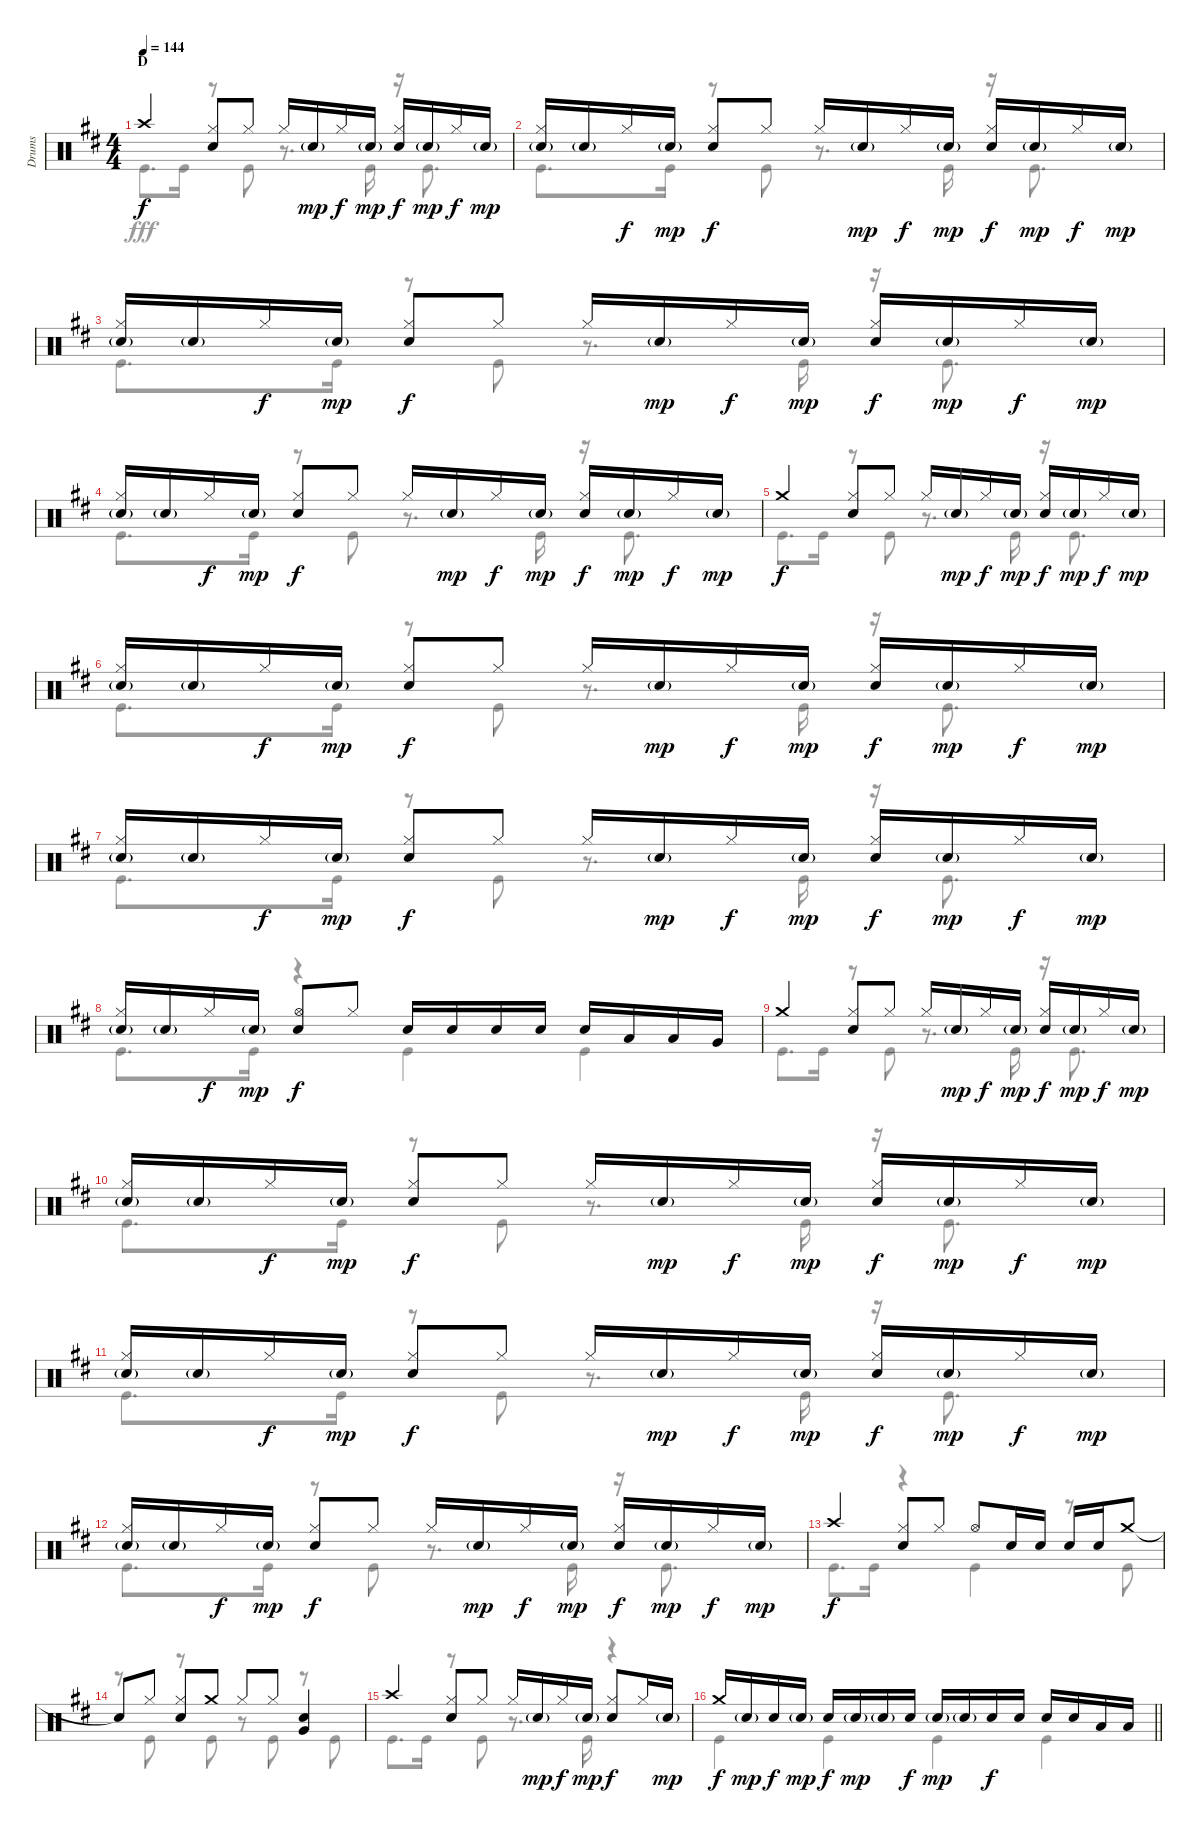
\track ("Drums" "Drums") {instrument percussion}
\staff {score}
\articulation defaults
\voice
\ts (4 4)
\section ("" "D")
\tempo 144
\clef neutral
\ks d "Crash high (hit)".4{dy f}
("Hi-Hat (closed)" "Snare (hit) 2").8 "Hi-Hat (closed)".8 "Hi-Hat (closed)".16 "Snare (hit) 2"{g}.16{dy mp} "Hi-Hat (closed)".16{dy f} "Snare (hit) 2"{g}.16{dy mp} ("Hi-Hat (closed)" "Snare (hit) 2").16{dy f} "Snare (hit) 2"{g}.16{dy mp} "Hi-Hat (closed)".16{dy f} "Snare (hit) 2"{g}.16{dy mp} |
("Hi-Hat (closed)" "Snare (hit) 2"{g}).16 "Snare (hit) 2"{g}.16 "Hi-Hat (closed)".16{dy f} "Snare (hit) 2"{g}.16{dy mp} ("Hi-Hat (closed)" "Snare (hit) 2").8{dy f} "Hi-Hat (closed)".8 "Hi-Hat (closed)".16 "Snare (hit) 2"{g}.16{dy mp} "Hi-Hat (closed)".16{dy f} "Snare (hit) 2"{g}.16{dy mp} ("Hi-Hat (closed)" "Snare (hit) 2").16{dy f} "Snare (hit) 2"{g}.16{dy mp} "Hi-Hat (closed)".16{dy f} "Snare (hit) 2"{g}.16{dy mp} |
("Hi-Hat (closed)" "Snare (hit) 2"{g}).16 "Snare (hit) 2"{g}.16 "Hi-Hat (closed)".16{dy f} "Snare (hit) 2"{g}.16{dy mp} ("Hi-Hat (closed)" "Snare (hit) 2").8{dy f} "Hi-Hat (closed)".8 "Hi-Hat (closed)".16 "Snare (hit) 2"{g}.16{dy mp} "Hi-Hat (closed)".16{dy f} "Snare (hit) 2"{g}.16{dy mp} ("Hi-Hat (closed)" "Snare (hit) 2").16{dy f} "Snare (hit) 2"{g}.16{dy mp} "Hi-Hat (closed)".16{dy f} "Snare (hit) 2"{g}.16{dy mp} |
("Hi-Hat (closed)" "Snare (hit) 2"{g}).16 "Snare (hit) 2"{g}.16 "Hi-Hat (closed)".16{dy f} "Snare (hit) 2"{g}.16{dy mp} ("Hi-Hat (closed)" "Snare (hit) 2").8{dy f} "Hi-Hat (closed)".8 "Hi-Hat (closed)".16 "Snare (hit) 2"{g}.16{dy mp} "Hi-Hat (closed)".16{dy f} "Snare (hit) 2"{g}.16{dy mp} ("Hi-Hat (closed)" "Snare (hit) 2").16{dy f} "Snare (hit) 2"{g}.16{dy mp} "Hi-Hat (closed)".16{dy f} "Snare (hit) 2"{g}.16{dy mp} |
"Crash medium (hit)".4{dy f} ("Hi-Hat (closed)" "Snare (hit) 2").8 "Hi-Hat (closed)".8 "Hi-Hat (closed)".16 "Snare (hit) 2"{g}.16{dy mp} "Hi-Hat (closed)".16{dy f} "Snare (hit) 2"{g}.16{dy mp} ("Hi-Hat (closed)" "Snare (hit) 2").16{dy f} "Snare (hit) 2"{g}.16{dy mp} "Hi-Hat (closed)".16{dy f} "Snare (hit) 2"{g}.16{dy mp} |
("Hi-Hat (closed)" "Snare (hit) 2"{g}).16 "Snare (hit) 2"{g}.16 "Hi-Hat (closed)".16{dy f} "Snare (hit) 2"{g}.16{dy mp} ("Hi-Hat (closed)" "Snare (hit) 2").8{dy f} "Hi-Hat (closed)".8 "Hi-Hat (closed)".16 "Snare (hit) 2"{g}.16{dy mp} "Hi-Hat (closed)".16{dy f} "Snare (hit) 2"{g}.16{dy mp} ("Hi-Hat (closed)" "Snare (hit) 2").16{dy f} "Snare (hit) 2"{g}.16{dy mp} "Hi-Hat (closed)".16{dy f} "Snare (hit) 2"{g}.16{dy mp} |
("Hi-Hat (closed)" "Snare (hit) 2"{g}).16 "Snare (hit) 2"{g}.16 "Hi-Hat (closed)".16{dy f} "Snare (hit) 2"{g}.16{dy mp} ("Hi-Hat (closed)" "Snare (hit) 2").8{dy f} "Hi-Hat (closed)".8 "Hi-Hat (closed)".16 "Snare (hit) 2"{g}.16{dy mp} "Hi-Hat (closed)".16{dy f} "Snare (hit) 2"{g}.16{dy mp} ("Hi-Hat (closed)" "Snare (hit) 2").16{dy f} "Snare (hit) 2"{g}.16{dy mp} "Hi-Hat (closed)".16{dy f} "Snare (hit) 2"{g}.16{dy mp} |
("Hi-Hat (closed)" "Snare (hit) 2"{g}).16 "Snare (hit) 2"{g}.16 "Hi-Hat (closed)".16{dy f} "Snare (hit) 2"{g}.16{dy mp} ("Hi-Hat (open)" "Snare (hit) 2").8{dy f} "Hi-Hat (closed)".8 "Snare (hit) 2".16 "Snare (hit) 2".16 "Snare (hit) 2".16 "Snare (hit) 2".16 "Snare (hit) 2".16 "Low Tom (hit)".16 "Low Tom (hit)".16 "Very Low Tom (hit)".16 |
"Crash medium (hit)".4 ("Hi-Hat (closed)" "Snare (hit) 2").8 "Hi-Hat (closed)".8 "Hi-Hat (closed)".16 "Snare (hit) 2"{g}.16{dy mp} "Hi-Hat (closed)".16{dy f} "Snare (hit) 2"{g}.16{dy mp} ("Hi-Hat (closed)" "Snare (hit) 2").16{dy f} "Snare (hit) 2"{g}.16{dy mp} "Hi-Hat (closed)".16{dy f} "Snare (hit) 2"{g}.16{dy mp} |
("Hi-Hat (closed)" "Snare (hit) 2"{g}).16 "Snare (hit) 2"{g}.16 "Hi-Hat (closed)".16{dy f} "Snare (hit) 2"{g}.16{dy mp} ("Hi-Hat (closed)" "Snare (hit) 2").8{dy f} "Hi-Hat (closed)".8 "Hi-Hat (closed)".16 "Snare (hit) 2"{g}.16{dy mp} "Hi-Hat (closed)".16{dy f} "Snare (hit) 2"{g}.16{dy mp} ("Hi-Hat (closed)" "Snare (hit) 2").16{dy f} "Snare (hit) 2"{g}.16{dy mp} "Hi-Hat (closed)".16{dy f} "Snare (hit) 2"{g}.16{dy mp} |
("Hi-Hat (closed)" "Snare (hit) 2"{g}).16 "Snare (hit) 2"{g}.16 "Hi-Hat (closed)".16{dy f} "Snare (hit) 2"{g}.16{dy mp} ("Hi-Hat (closed)" "Snare (hit) 2").8{dy f} "Hi-Hat (closed)".8 "Hi-Hat (closed)".16 "Snare (hit) 2"{g}.16{dy mp} "Hi-Hat (closed)".16{dy f} "Snare (hit) 2"{g}.16{dy mp} ("Hi-Hat (closed)" "Snare (hit) 2").16{dy f} "Snare (hit) 2"{g}.16{dy mp} "Hi-Hat (closed)".16{dy f} "Snare (hit) 2"{g}.16{dy mp} |
("Hi-Hat (closed)" "Snare (hit) 2"{g}).16 "Snare (hit) 2"{g}.16 "Hi-Hat (closed)".16{dy f} "Snare (hit) 2"{g}.16{dy mp} ("Hi-Hat (closed)" "Snare (hit) 2").8{dy f} "Hi-Hat (closed)".8 "Hi-Hat (closed)".16 "Snare (hit) 2"{g}.16{dy mp} "Hi-Hat (closed)".16{dy f} "Snare (hit) 2"{g}.16{dy mp} ("Hi-Hat (closed)" "Snare (hit) 2").16{dy f} "Snare (hit) 2"{g}.16{dy mp} "Hi-Hat (closed)".16{dy f} "Snare (hit) 2"{g}.16{dy mp} |
"Crash high (hit)".4{dy f} ("Hi-Hat (closed)" "Snare (hit) 2").8 "Hi-Hat (closed)".8 "Hi-Hat (open)".8 "Snare (hit) 2".16 "Snare (hit) 2".16 "Snare (hit) 2".16 "Snare (hit) 2".16 "Crash medium (hit)".8 |
"Snare (hit)"{t}.8 "Hi-Hat (closed)".8 ("Hi-Hat (closed)" "Snare (hit) 2").8 "Crash medium (hit)".8 "Hi-Hat (closed)".8 "Hi-Hat (closed)".8 ("Snare (hit) 2" "Very Low Tom (hit)").4 |
"Crash high (hit)".4 ("Hi-Hat (closed)" "Snare (hit) 2").8 "Hi-Hat (closed)".8 "Hi-Hat (closed)".16 "Snare (hit) 2"{g}.16{dy mp} "Hi-Hat (closed)".16{dy f} "Snare (hit) 2"{g}.16{dy mp} ("Hi-Hat (closed)" "Snare (hit) 2").8{dy f} "Hi-Hat (closed)".16 "Snare (hit) 2"{g}.16{dy mp} |
\barLineRight lightlight "Crash medium (hit)".16{dy f} "Snare (hit) 2"{g}.16{dy mp} "Snare (hit) 2".16{dy f} "Snare (hit) 2"{g}.16{dy mp} "Snare (hit) 2".16{dy f} "Snare (hit) 2"{g}.16{dy mp} "Snare (hit) 2"{g}.16 "Snare (hit) 2".16{dy f} "Snare (hit) 2"{g}.16{dy mp} "Snare (hit) 2"{g}.16 "Snare (hit) 2".16{dy f} "Snare (hit) 2".16 "Snare (hit) 2".16 "Snare (hit) 2".16 "Low Tom (hit)".16 "Low Tom (hit)".16
\voice
\clef neutral
\ottava regular
\simile none
\ks d "Kick (hit)".8{d dy fff} "Kick (hit)".16
r.8 "Kick (hit)".8 r.8{d} "Kick (hit)".16 r.16 "Kick (hit)".8{d} |
"Kick (hit)".8{d} "Kick (hit)".16 r.8 "Kick (hit)".8 r.8{d} "Kick (hit)".16 r.16 "Kick (hit)".8{d} |
"Kick (hit)".8{d} "Kick (hit)".16 r.8 "Kick (hit)".8 r.8{d} "Kick (hit)".16 r.16 "Kick (hit)".8{d} |
"Kick (hit)".8{d} "Kick (hit)".16 r.8 "Kick (hit)".8 r.8{d} "Kick (hit)".16 r.16 "Kick (hit)".8{d} |
"Kick (hit)".8{d} "Kick (hit)".16 r.8 "Kick (hit)".8 r.8{d} "Kick (hit)".16 r.16 "Kick (hit)".8{d} |
"Kick (hit)".8{d} "Kick (hit)".16 r.8 "Kick (hit)".8 r.8{d} "Kick (hit)".16 r.16 "Kick (hit)".8{d} |
"Kick (hit)".8{d} "Kick (hit)".16 r.8 "Kick (hit)".8 r.8{d} "Kick (hit)".16 r.16 "Kick (hit)".8{d} |
"Kick (hit)".8{d} "Kick (hit)".16 r.4 "Kick (hit)".4 "Kick (hit)".4 |
"Kick (hit)".8{d} "Kick (hit)".16 r.8 "Kick (hit)".8 r.8{d} "Kick (hit)".16 r.16 "Kick (hit)".8{d} |
"Kick (hit)".8{d} "Kick (hit)".16 r.8 "Kick (hit)".8 r.8{d} "Kick (hit)".16 r.16 "Kick (hit)".8{d} |
"Kick (hit)".8{d} "Kick (hit)".16 r.8 "Kick (hit)".8 r.8{d} "Kick (hit)".16 r.16 "Kick (hit)".8{d} |
"Kick (hit)".8{d} "Kick (hit)".16 r.8 "Kick (hit)".8 r.8{d} "Kick (hit)".16 r.16 "Kick (hit)".8{d} |
"Kick (hit)".8{d} "Kick (hit)".16 r.4 "Kick (hit)".4 r.8 "Kick (hit)".8 |
r.8 "Kick (hit)".8 r.8 "Kick (hit)".8 r.8 "Kick (hit)".8 r.8 "Kick (hit)".8 |
"Kick (hit)".8{d} "Kick (hit)".16 r.8 "Kick (hit)".8 r.8{d} "Kick (hit)".16 r.4 |
\barLineRight lightlight "Kick (hit)".4 "Kick (hit)".4 "Kick (hit)".4 "Kick (hit)".4
